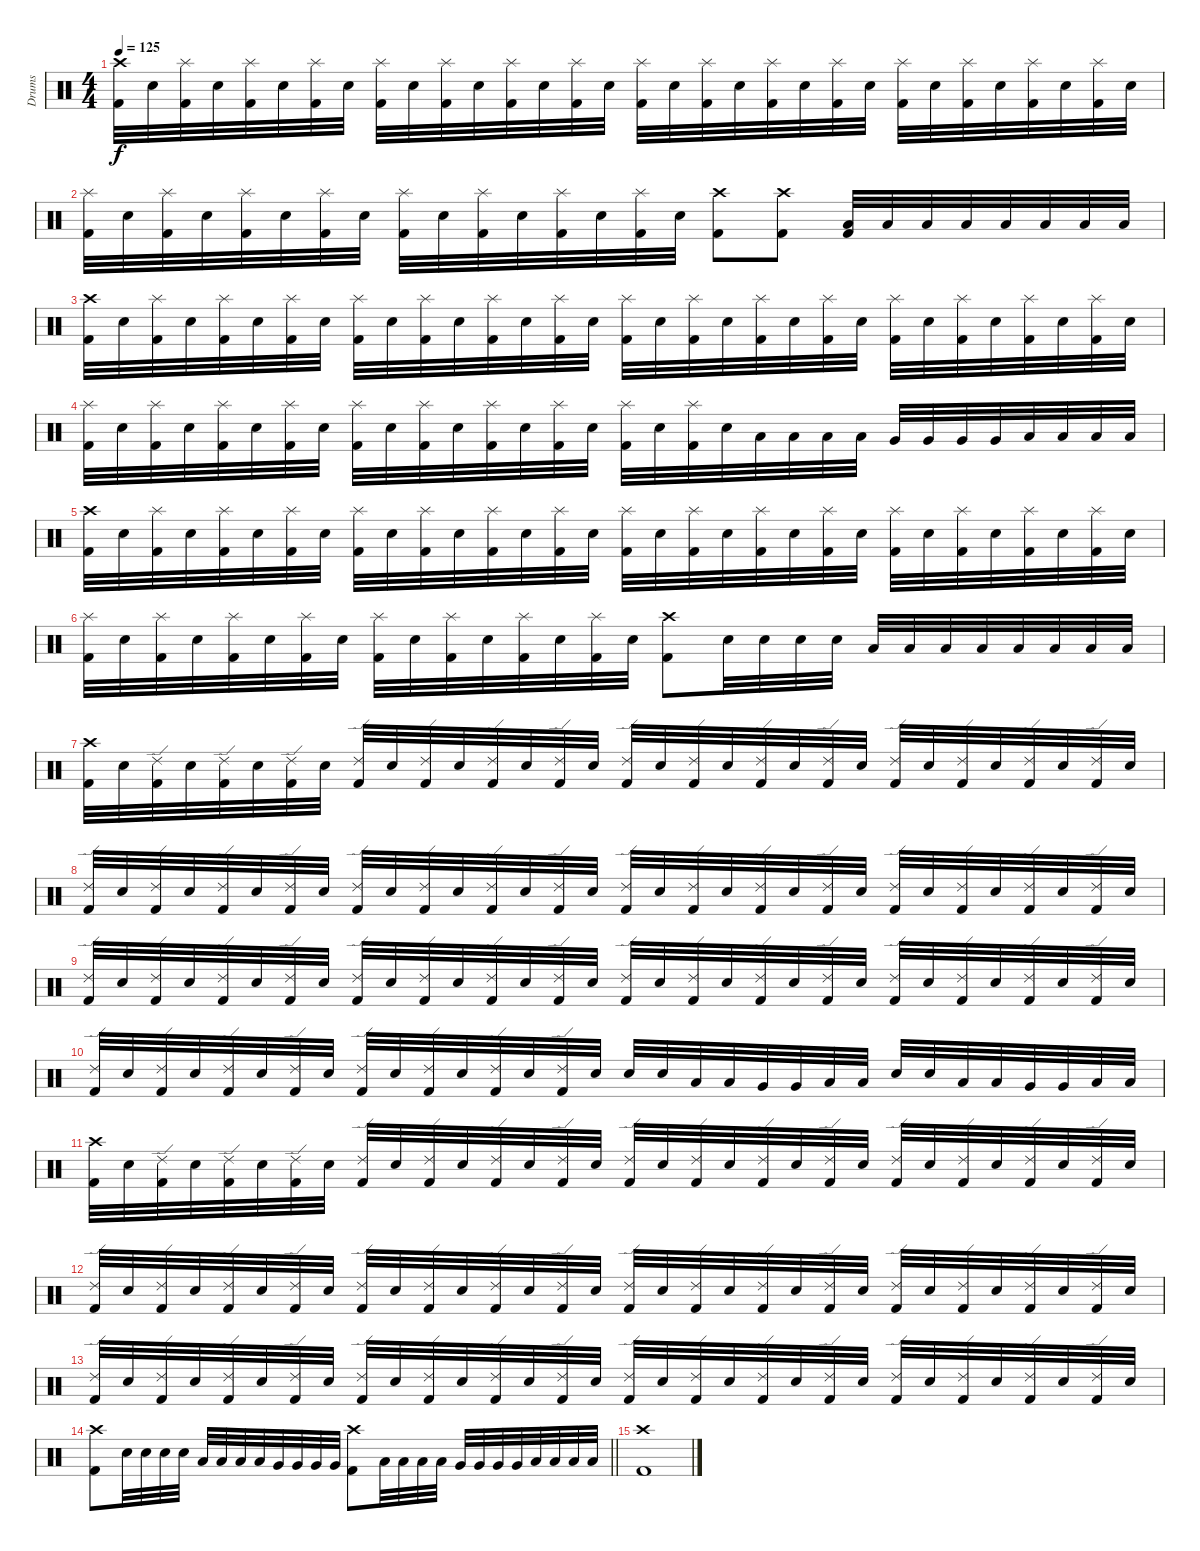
\track ("Drums" "Drums") {instrument percussion}
\staff {score}
\articulation defaults
\ts (4 4)
\tempo 125
\clef neutral
\ks c
("Crash high (hit)" "Kick (hit) 2").32{dy f} "Electric Snare (hit)".32 ("Splash (hit)" "Kick (hit) 2").32 "Electric Snare (hit)".32 ("Splash (hit)" "Kick (hit) 2").32 "Electric Snare (hit)".32 ("Splash (hit)" "Kick (hit) 2").32 "Electric Snare (hit)".32 ("Splash (hit)" "Kick (hit) 2").32 "Electric Snare (hit)".32 ("Splash (hit)" "Kick (hit) 2").32 "Electric Snare (hit)".32 ("Splash (hit)" "Kick (hit) 2").32 "Electric Snare (hit)".32 ("Splash (hit)" "Kick (hit) 2").32 "Electric Snare (hit)".32 ("Splash (hit)" "Kick (hit) 2").32 "Electric Snare (hit)".32 ("Splash (hit)" "Kick (hit) 2").32 "Electric Snare (hit)".32 ("Splash (hit)" "Kick (hit) 2").32 "Electric Snare (hit)".32 ("Splash (hit)" "Kick (hit) 2").32 "Electric Snare (hit)".32 ("Splash (hit)" "Kick (hit) 2").32 "Electric Snare (hit)".32 ("Splash (hit)" "Kick (hit) 2").32 "Electric Snare (hit)".32 ("Splash (hit)" "Kick (hit) 2").32 "Electric Snare (hit)".32 ("Splash (hit)" "Kick (hit) 2").32 "Electric Snare (hit)".32 |
("Splash (hit)" "Kick (hit) 2").32 "Electric Snare (hit)".32 ("Splash (hit)" "Kick (hit) 2").32 "Electric Snare (hit)".32 ("Splash (hit)" "Kick (hit) 2").32 "Electric Snare (hit)".32 ("Splash (hit)" "Kick (hit) 2").32 "Electric Snare (hit)".32 ("Splash (hit)" "Kick (hit) 2").32 "Electric Snare (hit)".32 ("Splash (hit)" "Kick (hit) 2").32 "Electric Snare (hit)".32 ("Splash (hit)" "Kick (hit) 2").32 "Electric Snare (hit)".32 ("Splash (hit)" "Kick (hit) 2").32 "Electric Snare (hit)".32 ("Crash high (hit)" "Kick (hit) 2").8 ("Crash high (hit)" "Kick (hit) 2").8 ("Low Tom (hit)" "Kick (hit) 2").32 "Low Tom (hit)".32 "Low Tom (hit)".32 "Low Tom (hit)".32 "Low Floor Tom (hit)".32 "Low Floor Tom (hit)".32 "Low Floor Tom (hit)".32 "Low Floor Tom (hit)".32 |
("Crash high (hit)" "Kick (hit) 2").32 "Electric Snare (hit)".32 ("Splash (hit)" "Kick (hit) 2").32 "Electric Snare (hit)".32 ("Splash (hit)" "Kick (hit) 2").32 "Electric Snare (hit)".32 ("Splash (hit)" "Kick (hit) 2").32 "Electric Snare (hit)".32 ("Splash (hit)" "Kick (hit) 2").32 "Electric Snare (hit)".32 ("Splash (hit)" "Kick (hit) 2").32 "Electric Snare (hit)".32 ("Splash (hit)" "Kick (hit) 2").32 "Electric Snare (hit)".32 ("Splash (hit)" "Kick (hit) 2").32 "Electric Snare (hit)".32 ("Splash (hit)" "Kick (hit) 2").32 "Electric Snare (hit)".32 ("Splash (hit)" "Kick (hit) 2").32 "Electric Snare (hit)".32 ("Splash (hit)" "Kick (hit) 2").32 "Electric Snare (hit)".32 ("Splash (hit)" "Kick (hit) 2").32 "Electric Snare (hit)".32 ("Splash (hit)" "Kick (hit) 2").32 "Electric Snare (hit)".32 ("Splash (hit)" "Kick (hit) 2").32 "Electric Snare (hit)".32 ("Splash (hit)" "Kick (hit) 2").32 "Electric Snare (hit)".32 ("Splash (hit)" "Kick (hit) 2").32 "Electric Snare (hit)".32 |
("Splash (hit)" "Kick (hit) 2").32 "Electric Snare (hit)".32 ("Splash (hit)" "Kick (hit) 2").32 "Electric Snare (hit)".32 ("Splash (hit)" "Kick (hit) 2").32 "Electric Snare (hit)".32 ("Splash (hit)" "Kick (hit) 2").32 "Electric Snare (hit)".32 ("Splash (hit)" "Kick (hit) 2").32 "Electric Snare (hit)".32 ("Splash (hit)" "Kick (hit) 2").32 "Electric Snare (hit)".32 ("Splash (hit)" "Kick (hit) 2").32 "Electric Snare (hit)".32 ("Splash (hit)" "Kick (hit) 2").32 "Electric Snare (hit)".32 ("Splash (hit)" "Kick (hit) 2").32 "Electric Snare (hit)".32 ("Splash (hit)" "Kick (hit) 2").32 "Electric Snare (hit)".32 "Low Tom (hit)".32 "Low Tom (hit)".32 "Low Tom (hit)".32 "Low Tom (hit)".32 "Very Low Tom (hit)".32 "Very Low Tom (hit)".32 "Very Low Tom (hit)".32 "Very Low Tom (hit)".32 "Low Floor Tom (hit)".32 "Low Floor Tom (hit)".32 "Low Floor Tom (hit)".32 "Low Floor Tom (hit)".32 |
("Crash high (hit)" "Kick (hit) 2").32 "Electric Snare (hit)".32 ("Splash (hit)" "Kick (hit) 2").32 "Electric Snare (hit)".32 ("Splash (hit)" "Kick (hit) 2").32 "Electric Snare (hit)".32 ("Splash (hit)" "Kick (hit) 2").32 "Electric Snare (hit)".32 ("Splash (hit)" "Kick (hit) 2").32 "Electric Snare (hit)".32 ("Splash (hit)" "Kick (hit) 2").32 "Electric Snare (hit)".32 ("Splash (hit)" "Kick (hit) 2").32 "Electric Snare (hit)".32 ("Splash (hit)" "Kick (hit) 2").32 "Electric Snare (hit)".32 ("Splash (hit)" "Kick (hit) 2").32 "Electric Snare (hit)".32 ("Splash (hit)" "Kick (hit) 2").32 "Electric Snare (hit)".32 ("Splash (hit)" "Kick (hit) 2").32 "Electric Snare (hit)".32 ("Splash (hit)" "Kick (hit) 2").32 "Electric Snare (hit)".32 ("Splash (hit)" "Kick (hit) 2").32 "Electric Snare (hit)".32 ("Splash (hit)" "Kick (hit) 2").32 "Electric Snare (hit)".32 ("Splash (hit)" "Kick (hit) 2").32 "Electric Snare (hit)".32 ("Splash (hit)" "Kick (hit) 2").32 "Electric Snare (hit)".32 |
("Splash (hit)" "Kick (hit) 2").32 "Electric Snare (hit)".32 ("Splash (hit)" "Kick (hit) 2").32 "Electric Snare (hit)".32 ("Splash (hit)" "Kick (hit) 2").32 "Electric Snare (hit)".32 ("Splash (hit)" "Kick (hit) 2").32 "Electric Snare (hit)".32 ("Splash (hit)" "Kick (hit) 2").32 "Electric Snare (hit)".32 ("Splash (hit)" "Kick (hit) 2").32 "Electric Snare (hit)".32 ("Splash (hit)" "Kick (hit) 2").32 "Electric Snare (hit)".32 ("Splash (hit)" "Kick (hit) 2").32 "Electric Snare (hit)".32 ("Crash high (hit)" "Kick (hit) 2").8 "Electric Snare (hit)".32 "Electric Snare (hit)".32 "Electric Snare (hit)".32 "Electric Snare (hit)".32 "Low Tom (hit)".32 "Low Tom (hit)".32 "Low Tom (hit)".32 "Low Tom (hit)".32 "Low Floor Tom (hit)".32 "Low Floor Tom (hit)".32 "Low Floor Tom (hit)".32 "Low Floor Tom (hit)".32 |
("Crash high (hit)" "Kick (hit) 2").32 "Electric Snare (hit)".32 ("Ride (edge) 2" "Kick (hit) 2").32 "Electric Snare (hit)".32 ("Ride (edge) 2" "Kick (hit) 2").32 "Electric Snare (hit)".32 ("Ride (edge) 2" "Kick (hit) 2").32 "Electric Snare (hit)".32 ("Ride (edge) 2" "Kick (hit) 2").32 "Electric Snare (hit)".32 ("Ride (edge) 2" "Kick (hit) 2").32 "Electric Snare (hit)".32 ("Ride (edge) 2" "Kick (hit) 2").32 "Electric Snare (hit)".32 ("Ride (edge) 2" "Kick (hit) 2").32 "Electric Snare (hit)".32 ("Ride (edge) 2" "Kick (hit) 2").32 "Electric Snare (hit)".32 ("Ride (edge) 2" "Kick (hit) 2").32 "Electric Snare (hit)".32 ("Ride (edge) 2" "Kick (hit) 2").32 "Electric Snare (hit)".32 ("Ride (edge) 2" "Kick (hit) 2").32 "Electric Snare (hit)".32 ("Ride (edge) 2" "Kick (hit) 2").32 "Electric Snare (hit)".32 ("Ride (edge) 2" "Kick (hit) 2").32 "Electric Snare (hit)".32 ("Ride (edge) 2" "Kick (hit) 2").32 "Electric Snare (hit)".32 ("Ride (edge) 2" "Kick (hit) 2").32 "Electric Snare (hit)".32 |
("Ride (edge) 2" "Kick (hit) 2").32 "Electric Snare (hit)".32 ("Ride (edge) 2" "Kick (hit) 2").32 "Electric Snare (hit)".32 ("Ride (edge) 2" "Kick (hit) 2").32 "Electric Snare (hit)".32 ("Ride (edge) 2" "Kick (hit) 2").32 "Electric Snare (hit)".32 ("Ride (edge) 2" "Kick (hit) 2").32 "Electric Snare (hit)".32 ("Ride (edge) 2" "Kick (hit) 2").32 "Electric Snare (hit)".32 ("Ride (edge) 2" "Kick (hit) 2").32 "Electric Snare (hit)".32 ("Ride (edge) 2" "Kick (hit) 2").32 "Electric Snare (hit)".32 ("Ride (edge) 2" "Kick (hit) 2").32 "Electric Snare (hit)".32 ("Ride (edge) 2" "Kick (hit) 2").32 "Electric Snare (hit)".32 ("Ride (edge) 2" "Kick (hit) 2").32 "Electric Snare (hit)".32 ("Ride (edge) 2" "Kick (hit) 2").32 "Electric Snare (hit)".32 ("Ride (edge) 2" "Kick (hit) 2").32 "Electric Snare (hit)".32 ("Ride (edge) 2" "Kick (hit) 2").32 "Electric Snare (hit)".32 ("Ride (edge) 2" "Kick (hit) 2").32 "Electric Snare (hit)".32 ("Ride (edge) 2" "Kick (hit) 2").32 "Electric Snare (hit)".32 |
("Ride (edge) 2" "Kick (hit) 2").32 "Electric Snare (hit)".32 ("Ride (edge) 2" "Kick (hit) 2").32 "Electric Snare (hit)".32 ("Ride (edge) 2" "Kick (hit) 2").32 "Electric Snare (hit)".32 ("Ride (edge) 2" "Kick (hit) 2").32 "Electric Snare (hit)".32 ("Ride (edge) 2" "Kick (hit) 2").32 "Electric Snare (hit)".32 ("Ride (edge) 2" "Kick (hit) 2").32 "Electric Snare (hit)".32 ("Ride (edge) 2" "Kick (hit) 2").32 "Electric Snare (hit)".32 ("Ride (edge) 2" "Kick (hit) 2").32 "Electric Snare (hit)".32 ("Ride (edge) 2" "Kick (hit) 2").32 "Electric Snare (hit)".32 ("Ride (edge) 2" "Kick (hit) 2").32 "Electric Snare (hit)".32 ("Ride (edge) 2" "Kick (hit) 2").32 "Electric Snare (hit)".32 ("Ride (edge) 2" "Kick (hit) 2").32 "Electric Snare (hit)".32 ("Ride (edge) 2" "Kick (hit) 2").32 "Electric Snare (hit)".32 ("Ride (edge) 2" "Kick (hit) 2").32 "Electric Snare (hit)".32 ("Ride (edge) 2" "Kick (hit) 2").32 "Electric Snare (hit)".32 ("Ride (edge) 2" "Kick (hit) 2").32 "Electric Snare (hit)".32 |
("Ride (edge) 2" "Kick (hit) 2").32 "Electric Snare (hit)".32 ("Ride (edge) 2" "Kick (hit) 2").32 "Electric Snare (hit)".32 ("Ride (edge) 2" "Kick (hit) 2").32 "Electric Snare (hit)".32 ("Ride (edge) 2" "Kick (hit) 2").32 "Electric Snare (hit)".32 ("Ride (edge) 2" "Kick (hit) 2").32 "Electric Snare (hit)".32 ("Ride (edge) 2" "Kick (hit) 2").32 "Electric Snare (hit)".32 ("Ride (edge) 2" "Kick (hit) 2").32 "Electric Snare (hit)".32 ("Ride (edge) 2" "Kick (hit) 2").32 "Electric Snare (hit)".32 "Electric Snare (hit)".32 "Electric Snare (hit)".32 "Low Tom (hit)".32 "Low Tom (hit)".32 "Very Low Tom (hit)".32 "Very Low Tom (hit)".32 "Low Floor Tom (hit)".32 "Low Floor Tom (hit)".32 "Electric Snare (hit)".32 "Electric Snare (hit)".32 "Low Tom (hit)".32 "Low Tom (hit)".32 "Very Low Tom (hit)".32 "Very Low Tom (hit)".32 "Low Floor Tom (hit)".32 "Low Floor Tom (hit)".32 |
("Crash high (hit)" "Kick (hit) 2").32 "Electric Snare (hit)".32 ("Ride (edge) 2" "Kick (hit) 2").32 "Electric Snare (hit)".32 ("Ride (edge) 2" "Kick (hit) 2").32 "Electric Snare (hit)".32 ("Ride (edge) 2" "Kick (hit) 2").32 "Electric Snare (hit)".32 ("Ride (edge) 2" "Kick (hit) 2").32 "Electric Snare (hit)".32 ("Ride (edge) 2" "Kick (hit) 2").32 "Electric Snare (hit)".32 ("Ride (edge) 2" "Kick (hit) 2").32 "Electric Snare (hit)".32 ("Ride (edge) 2" "Kick (hit) 2").32 "Electric Snare (hit)".32 ("Ride (edge) 2" "Kick (hit) 2").32 "Electric Snare (hit)".32 ("Ride (edge) 2" "Kick (hit) 2").32 "Electric Snare (hit)".32 ("Ride (edge) 2" "Kick (hit) 2").32 "Electric Snare (hit)".32 ("Ride (edge) 2" "Kick (hit) 2").32 "Electric Snare (hit)".32 ("Ride (edge) 2" "Kick (hit) 2").32 "Electric Snare (hit)".32 ("Ride (edge) 2" "Kick (hit) 2").32 "Electric Snare (hit)".32 ("Ride (edge) 2" "Kick (hit) 2").32 "Electric Snare (hit)".32 ("Ride (edge) 2" "Kick (hit) 2").32 "Electric Snare (hit)".32 |
("Ride (edge) 2" "Kick (hit) 2").32 "Electric Snare (hit)".32 ("Ride (edge) 2" "Kick (hit) 2").32 "Electric Snare (hit)".32 ("Ride (edge) 2" "Kick (hit) 2").32 "Electric Snare (hit)".32 ("Ride (edge) 2" "Kick (hit) 2").32 "Electric Snare (hit)".32 ("Ride (edge) 2" "Kick (hit) 2").32 "Electric Snare (hit)".32 ("Ride (edge) 2" "Kick (hit) 2").32 "Electric Snare (hit)".32 ("Ride (edge) 2" "Kick (hit) 2").32 "Electric Snare (hit)".32 ("Ride (edge) 2" "Kick (hit) 2").32 "Electric Snare (hit)".32 ("Ride (edge) 2" "Kick (hit) 2").32 "Electric Snare (hit)".32 ("Ride (edge) 2" "Kick (hit) 2").32 "Electric Snare (hit)".32 ("Ride (edge) 2" "Kick (hit) 2").32 "Electric Snare (hit)".32 ("Ride (edge) 2" "Kick (hit) 2").32 "Electric Snare (hit)".32 ("Ride (edge) 2" "Kick (hit) 2").32 "Electric Snare (hit)".32 ("Ride (edge) 2" "Kick (hit) 2").32 "Electric Snare (hit)".32 ("Ride (edge) 2" "Kick (hit) 2").32 "Electric Snare (hit)".32 ("Ride (edge) 2" "Kick (hit) 2").32 "Electric Snare (hit)".32 |
("Ride (edge) 2" "Kick (hit) 2").32 "Electric Snare (hit)".32 ("Ride (edge) 2" "Kick (hit) 2").32 "Electric Snare (hit)".32 ("Ride (edge) 2" "Kick (hit) 2").32 "Electric Snare (hit)".32 ("Ride (edge) 2" "Kick (hit) 2").32 "Electric Snare (hit)".32 ("Ride (edge) 2" "Kick (hit) 2").32 "Electric Snare (hit)".32 ("Ride (edge) 2" "Kick (hit) 2").32 "Electric Snare (hit)".32 ("Ride (edge) 2" "Kick (hit) 2").32 "Electric Snare (hit)".32 ("Ride (edge) 2" "Kick (hit) 2").32 "Electric Snare (hit)".32 ("Ride (edge) 2" "Kick (hit) 2").32 "Electric Snare (hit)".32 ("Ride (edge) 2" "Kick (hit) 2").32 "Electric Snare (hit)".32 ("Ride (edge) 2" "Kick (hit) 2").32 "Electric Snare (hit)".32 ("Ride (edge) 2" "Kick (hit) 2").32 "Electric Snare (hit)".32 ("Ride (edge) 2" "Kick (hit) 2").32 "Electric Snare (hit)".32 ("Ride (edge) 2" "Kick (hit) 2").32 "Electric Snare (hit)".32 ("Ride (edge) 2" "Kick (hit) 2").32 "Electric Snare (hit)".32 ("Ride (edge) 2" "Kick (hit) 2").32 "Electric Snare (hit)".32 |
\barLineRight lightlight
("Crash high (hit)" "Kick (hit) 2").8 "Electric Snare (hit)".32 "Electric Snare (hit)".32 "Electric Snare (hit)".32 "Electric Snare (hit)".32 "Low Tom (hit)".32 "Low Tom (hit)".32 "Low Tom (hit)".32 "Low Tom (hit)".32 "Very Low Tom (hit)".32 "Very Low Tom (hit)".32 "Very Low Tom (hit)".32 "Very Low Tom (hit)".32 ("Crash high (hit)" "Kick (hit) 2").8 "Low Tom (hit)".32 "Low Tom (hit)".32 "Low Tom (hit)".32 "Low Tom (hit)".32 "Very Low Tom (hit)".32 "Very Low Tom (hit)".32 "Very Low Tom (hit)".32 "Very Low Tom (hit)".32 "Low Floor Tom (hit)".32 "Low Floor Tom (hit)".32 "Low Floor Tom (hit)".32 "Low Floor Tom (hit)".32 |
("Crash high (hit)" "Kick (hit) 2").1
